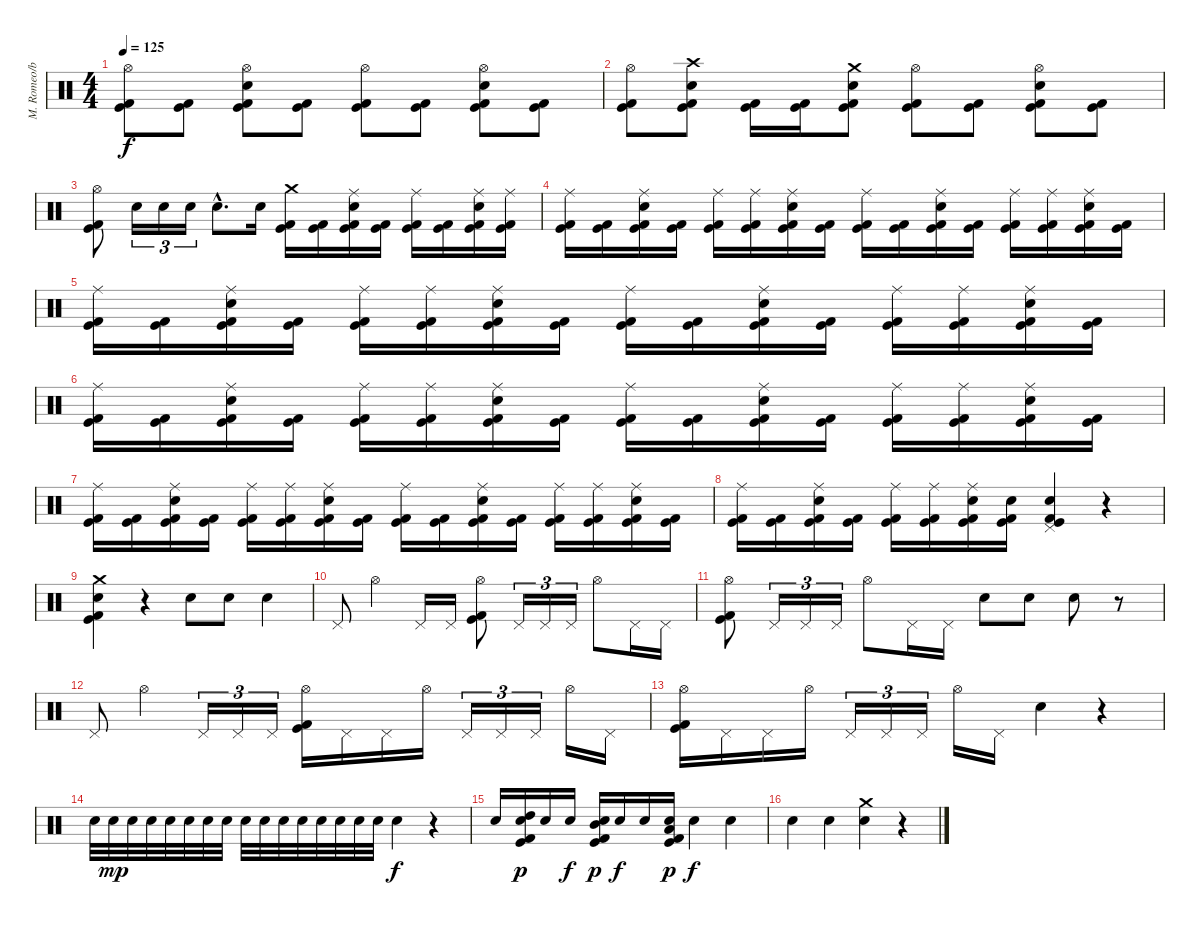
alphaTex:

\track ("M. Romeo/bateria" "M. Romeo/b") {instrument percussion}
\staff {score}
\articulation defaults
\ts (4 4)
\tempo 125
\clef neutral
\ks c
("Hi-Hat (open)" "Kick (hit)" "Kick (hit) 2").8{dy f} ("Kick (hit)" "Kick (hit) 2").8 ("Hi-Hat (open)" "Electric Snare (hit)" "Kick (hit)" "Kick (hit) 2").8 ("Kick (hit)" "Kick (hit) 2").8 ("Hi-Hat (open)" "Kick (hit)" "Kick (hit) 2").8 ("Kick (hit)" "Kick (hit) 2").8 ("Hi-Hat (open)" "Electric Snare (hit)" "Kick (hit)" "Kick (hit) 2").8 ("Kick (hit)" "Kick (hit) 2").8 |
("Hi-Hat (open)" "Kick (hit)" "Kick (hit) 2").8 ("Crash high (hit)" "Electric Snare (hit)" "Kick (hit)" "Kick (hit) 2").8 ("Kick (hit)" "Kick (hit) 2").16 ("Kick (hit)" "Kick (hit) 2").16 ("Crash medium (hit)" "Electric Snare (hit)" "Kick (hit)" "Kick (hit) 2").8 ("Hi-Hat (open)" "Kick (hit)" "Kick (hit) 2").8 ("Kick (hit)" "Kick (hit) 2").8 ("Hi-Hat (open)" "Electric Snare (hit)" "Kick (hit)" "Kick (hit) 2").8 ("Kick (hit)" "Kick (hit) 2").8 |
("Hi-Hat (open)" "Kick (hit)" "Kick (hit) 2").8 "Electric Snare (hit)".16{tu (3 2)} "Electric Snare (hit)".16{tu (3 2)} "Electric Snare (hit)".16{tu (3 2)} "Electric Snare (hit)"{hac}.8{d} "Electric Snare (hit)".16 ("Crash medium (hit)" "Kick (hit)" "Kick (hit) 2").16 ("Kick (hit)" "Kick (hit) 2").16 ("Ride (middle)" "Electric Snare (hit)" "Kick (hit)" "Kick (hit) 2").16 ("Kick (hit)" "Kick (hit) 2").16 ("Ride (middle)" "Kick (hit)" "Kick (hit) 2").16 ("Kick (hit)" "Kick (hit) 2").16 ("Ride (middle)" "Electric Snare (hit)" "Kick (hit)" "Kick (hit) 2").16 ("Ride (middle)" "Kick (hit)" "Kick (hit) 2").16 |
("Ride (middle)" "Kick (hit)" "Kick (hit) 2").16 ("Kick (hit)" "Kick (hit) 2").16 ("Ride (middle)" "Electric Snare (hit)" "Kick (hit)" "Kick (hit) 2").16 ("Kick (hit)" "Kick (hit) 2").16 ("Ride (middle)" "Kick (hit)" "Kick (hit) 2").16 ("Ride (middle)" "Kick (hit)" "Kick (hit) 2").16 ("Ride (middle)" "Electric Snare (hit)" "Kick (hit)" "Kick (hit) 2").16 ("Kick (hit)" "Kick (hit) 2").16 ("Ride (middle)" "Kick (hit)" "Kick (hit) 2").16 ("Kick (hit)" "Kick (hit) 2").16 ("Ride (middle)" "Electric Snare (hit)" "Kick (hit)" "Kick (hit) 2").16 ("Kick (hit)" "Kick (hit) 2").16 ("Ride (middle)" "Kick (hit)" "Kick (hit) 2").16 ("Ride (middle)" "Kick (hit)" "Kick (hit) 2").16 ("Ride (middle)" "Electric Snare (hit)" "Kick (hit)" "Kick (hit) 2").16 ("Kick (hit)" "Kick (hit) 2").16 |
("Ride (middle)" "Kick (hit)" "Kick (hit) 2").16 ("Kick (hit)" "Kick (hit) 2").16 ("Ride (middle)" "Electric Snare (hit)" "Kick (hit)" "Kick (hit) 2").16 ("Kick (hit)" "Kick (hit) 2").16 ("Ride (middle)" "Kick (hit)" "Kick (hit) 2").16 ("Ride (middle)" "Kick (hit)" "Kick (hit) 2").16 ("Ride (middle)" "Electric Snare (hit)" "Kick (hit)" "Kick (hit) 2").16 ("Kick (hit)" "Kick (hit) 2").16 ("Ride (middle)" "Kick (hit)" "Kick (hit) 2").16 ("Kick (hit)" "Kick (hit) 2").16 ("Ride (middle)" "Electric Snare (hit)" "Kick (hit)" "Kick (hit) 2").16 ("Kick (hit)" "Kick (hit) 2").16 ("Ride (middle)" "Kick (hit)" "Kick (hit) 2").16 ("Ride (middle)" "Kick (hit)" "Kick (hit) 2").16 ("Ride (middle)" "Electric Snare (hit)" "Kick (hit)" "Kick (hit) 2").16 ("Kick (hit)" "Kick (hit) 2").16 |
("Ride (middle)" "Kick (hit)" "Kick (hit) 2").16 ("Kick (hit)" "Kick (hit) 2").16 ("Ride (middle)" "Electric Snare (hit)" "Kick (hit)" "Kick (hit) 2").16 ("Kick (hit)" "Kick (hit) 2").16 ("Ride (middle)" "Kick (hit)" "Kick (hit) 2").16 ("Ride (middle)" "Kick (hit)" "Kick (hit) 2").16 ("Ride (middle)" "Electric Snare (hit)" "Kick (hit)" "Kick (hit) 2").16 ("Kick (hit)" "Kick (hit) 2").16 ("Ride (middle)" "Kick (hit)" "Kick (hit) 2").16 ("Kick (hit)" "Kick (hit) 2").16 ("Ride (middle)" "Electric Snare (hit)" "Kick (hit)" "Kick (hit) 2").16 ("Kick (hit)" "Kick (hit) 2").16 ("Ride (middle)" "Kick (hit)" "Kick (hit) 2").16 ("Ride (middle)" "Kick (hit)" "Kick (hit) 2").16 ("Ride (middle)" "Electric Snare (hit)" "Kick (hit)" "Kick (hit) 2").16 ("Kick (hit)" "Kick (hit) 2").16 |
("Ride (middle)" "Kick (hit)" "Kick (hit) 2").16 ("Kick (hit)" "Kick (hit) 2").16 ("Ride (middle)" "Electric Snare (hit)" "Kick (hit)" "Kick (hit) 2").16 ("Kick (hit)" "Kick (hit) 2").16 ("Ride (middle)" "Kick (hit)" "Kick (hit) 2").16 ("Ride (middle)" "Kick (hit)" "Kick (hit) 2").16 ("Ride (middle)" "Electric Snare (hit)" "Kick (hit)" "Kick (hit) 2").16 ("Kick (hit)" "Kick (hit) 2").16 ("Ride (middle)" "Kick (hit)" "Kick (hit) 2").16 ("Kick (hit)" "Kick (hit) 2").16 ("Ride (middle)" "Electric Snare (hit)" "Kick (hit)" "Kick (hit) 2").16 ("Kick (hit)" "Kick (hit) 2").16 ("Ride (middle)" "Kick (hit)" "Kick (hit) 2").16 ("Ride (middle)" "Kick (hit)" "Kick (hit) 2").16 ("Ride (middle)" "Electric Snare (hit)" "Kick (hit)" "Kick (hit) 2").16 ("Kick (hit)" "Kick (hit) 2").16 |
("Ride (middle)" "Kick (hit)" "Kick (hit) 2").16 ("Kick (hit)" "Kick (hit) 2").16 ("Ride (middle)" "Electric Snare (hit)" "Kick (hit)" "Kick (hit) 2").16 ("Kick (hit)" "Kick (hit) 2").16 ("Ride (middle)" "Kick (hit)" "Kick (hit) 2").16 ("Ride (middle)" "Kick (hit)" "Kick (hit) 2").16 ("Ride (middle)" "Electric Snare (hit)" "Kick (hit)" "Kick (hit) 2").16 ("Electric Snare (hit)" "Kick (hit)" "Kick (hit) 2").16 ("Pedal Hi-Hat (hit)" "Electric Snare (hit)" "Kick (hit)" "Kick (hit) 2").4 r.4 |
("Crash medium (hit)" "Electric Snare (hit)" "Kick (hit)" "Kick (hit) 2").4 r.4 "Electric Snare (hit)".8 "Electric Snare (hit)".8 "Electric Snare (hit)".4 |
"Pedal Hi-Hat (hit)".8 "Hi-Hat (open)".4 "Pedal Hi-Hat (hit)".16 "Pedal Hi-Hat (hit)".16 ("Hi-Hat (open)" "Kick (hit)" "Kick (hit) 2").8 "Pedal Hi-Hat (hit)".16{tu (3 2)} "Pedal Hi-Hat (hit)".16{tu (3 2)} "Pedal Hi-Hat (hit)".16{tu (3 2)} "Hi-Hat (open)".8 "Pedal Hi-Hat (hit)".16 "Pedal Hi-Hat (hit)".16 |
("Hi-Hat (open)" "Kick (hit)" "Kick (hit) 2").8 "Pedal Hi-Hat (hit)".16{tu (3 2)} "Pedal Hi-Hat (hit)".16{tu (3 2)} "Pedal Hi-Hat (hit)".16{tu (3 2)} "Hi-Hat (open)".8 "Pedal Hi-Hat (hit)".16 "Pedal Hi-Hat (hit)".16 "Electric Snare (hit)".8 "Electric Snare (hit)".8 "Electric Snare (hit)".8 r.8 |
"Pedal Hi-Hat (hit)".8 "Hi-Hat (open)".4 "Pedal Hi-Hat (hit)".16{tu (3 2)} "Pedal Hi-Hat (hit)".16{tu (3 2)} "Pedal Hi-Hat (hit)".16{tu (3 2)} ("Hi-Hat (open)" "Kick (hit)" "Kick (hit) 2").16 "Pedal Hi-Hat (hit)".16 "Pedal Hi-Hat (hit)".16 "Hi-Hat (open)".16 "Pedal Hi-Hat (hit)".16{tu (3 2)} "Pedal Hi-Hat (hit)".16{tu (3 2)} "Pedal Hi-Hat (hit)".16{tu (3 2)} "Hi-Hat (open)".16 "Pedal Hi-Hat (hit)".16 |
("Hi-Hat (open)" "Kick (hit)" "Kick (hit) 2").16 "Pedal Hi-Hat (hit)".16 "Pedal Hi-Hat (hit)".16 "Hi-Hat (open)".16 "Pedal Hi-Hat (hit)".16{tu (3 2)} "Pedal Hi-Hat (hit)".16{tu (3 2)} "Pedal Hi-Hat (hit)".16{tu (3 2)} "Hi-Hat (open)".16 "Pedal Hi-Hat (hit)".16 "Electric Snare (hit)".4 r.4 |
"Electric Snare (hit)".32 "Electric Snare (hit)".32{dy mp} "Electric Snare (hit)".32 "Electric Snare (hit)".32 "Electric Snare (hit)".32 "Electric Snare (hit)".32 "Electric Snare (hit)".32 "Electric Snare (hit)".32 "Electric Snare (hit)".32 "Electric Snare (hit)".32 "Electric Snare (hit)".32 "Electric Snare (hit)".32 "Electric Snare (hit)".32 "Electric Snare (hit)".32 "Electric Snare (hit)".32 "Electric Snare (hit)".32 "Electric Snare (hit)".4{dy f} r.4 |
"Electric Snare (hit)".16 ("Electric Snare (hit)" "High Tom (hit)" "Kick (hit)" "Kick (hit) 2").16{dy p} "Electric Snare (hit)".16 "Electric Snare (hit)".16{dy f} ("Electric Snare (hit)" "Mid Tom (hit)" "Kick (hit)" "Kick (hit) 2").16{dy p} "Electric Snare (hit)".16{dy f} "Electric Snare (hit)".16 ("Electric Snare (hit)" "Low Tom (hit)" "Kick (hit)" "Kick (hit) 2").16{dy p} "Electric Snare (hit)".4{dy f} "Electric Snare (hit)".4 |
"Electric Snare (hit)".4 "Electric Snare (hit)".4 ("Crash medium (hit)" "Electric Snare (hit)").4 r.4
